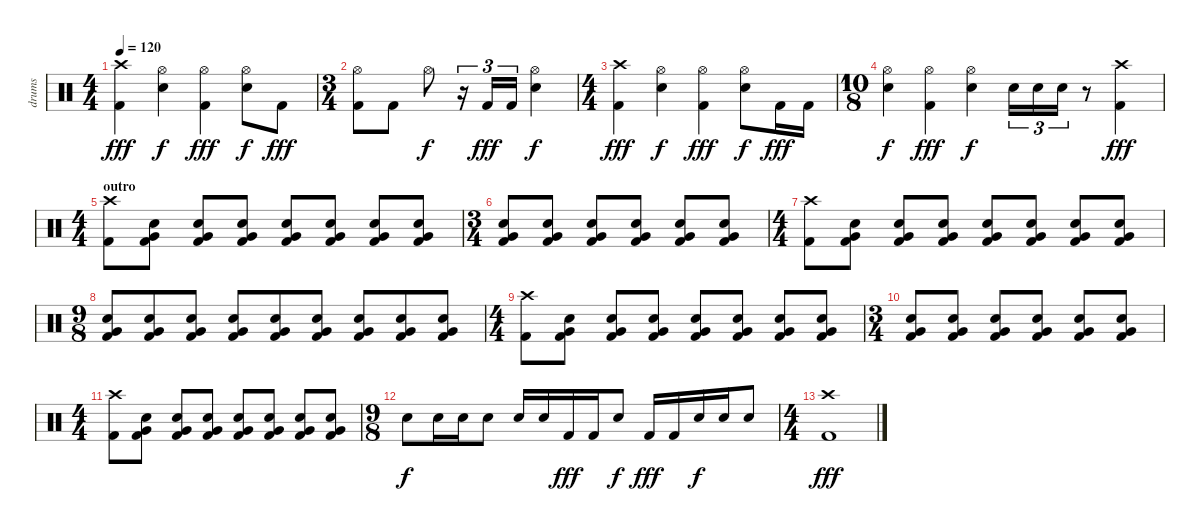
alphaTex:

\track ("drums" "drums") {instrument percussion}
\staff {score}
\articulation defaults
\ts (4 4)
\tempo 120
\clef neutral
\ks c
("Crash high (hit)" "Kick (hit) 2").4{dy fff} ("Hi-Hat (open)" "Snare (hit) 2").4{dy f} ("Hi-Hat (open)" "Kick (hit) 2").4{dy fff} ("Hi-Hat (open)" "Snare (hit) 2").8{dy f} "Kick (hit) 2".8{dy fff} |
\ts (3 4)
("Hi-Hat (open)" "Kick (hit) 2").8 "Kick (hit) 2".8 "Hi-Hat (open)".8{dy f} r.16{tu (3 2)} "Kick (hit) 2".16{tu (3 2) dy fff} "Kick (hit) 2".16{tu (3 2)} ("Hi-Hat (open)" "Snare (hit) 2").4{dy f} |
\ts (4 4)
("Crash high (hit)" "Kick (hit) 2").4{dy fff} ("Hi-Hat (open)" "Snare (hit) 2").4{dy f} ("Hi-Hat (open)" "Kick (hit) 2").4{dy fff} ("Hi-Hat (open)" "Snare (hit) 2").8{dy f} "Kick (hit) 2".16{dy fff} "Kick (hit) 2".16 |
\ts (10 8)
("Hi-Hat (open)" "Snare (hit) 2").4{dy f} ("Hi-Hat (open)" "Kick (hit) 2").4{dy fff} ("Hi-Hat (open)" "Snare (hit) 2").4{dy f} "Snare (hit) 2".16{tu (3 2)} "Snare (hit) 2".16{tu (3 2)} "Snare (hit) 2".16{tu (3 2)} r.8 ("Crash high (hit)" "Kick (hit) 2").4{dy fff} |
\ts (4 4)
\section ("" "outro")
("Crash high (hit)" "Kick (hit) 2").8 ("Snare (hit) 2" "Very Low Tom (hit)" "Kick (hit) 2").8 ("Snare (hit) 2" "Very Low Tom (hit)" "Kick (hit) 2").8 ("Snare (hit) 2" "Very Low Tom (hit)" "Kick (hit) 2").8 ("Snare (hit) 2" "Very Low Tom (hit)" "Kick (hit) 2").8 ("Snare (hit) 2" "Very Low Tom (hit)" "Kick (hit) 2").8 ("Snare (hit) 2" "Very Low Tom (hit)" "Kick (hit) 2").8 ("Snare (hit) 2" "Very Low Tom (hit)" "Kick (hit) 2").8 |
\ts (3 4)
("Snare (hit) 2" "Very Low Tom (hit)" "Kick (hit) 2").8 ("Snare (hit) 2" "Very Low Tom (hit)" "Kick (hit) 2").8 ("Snare (hit) 2" "Very Low Tom (hit)" "Kick (hit) 2").8 ("Snare (hit) 2" "Very Low Tom (hit)" "Kick (hit) 2").8 ("Snare (hit) 2" "Very Low Tom (hit)" "Kick (hit) 2").8 ("Snare (hit) 2" "Very Low Tom (hit)" "Kick (hit) 2").8 |
\ts (4 4)
("Crash high (hit)" "Kick (hit) 2").8 ("Snare (hit) 2" "Very Low Tom (hit)" "Kick (hit) 2").8 ("Snare (hit) 2" "Very Low Tom (hit)" "Kick (hit) 2").8 ("Snare (hit) 2" "Very Low Tom (hit)" "Kick (hit) 2").8 ("Snare (hit) 2" "Very Low Tom (hit)" "Kick (hit) 2").8 ("Snare (hit) 2" "Very Low Tom (hit)" "Kick (hit) 2").8 ("Snare (hit) 2" "Very Low Tom (hit)" "Kick (hit) 2").8 ("Snare (hit) 2" "Very Low Tom (hit)" "Kick (hit) 2").8 |
\ts (9 8)
("Snare (hit) 2" "Very Low Tom (hit)" "Kick (hit) 2").8 ("Snare (hit) 2" "Very Low Tom (hit)" "Kick (hit) 2").8 ("Snare (hit) 2" "Very Low Tom (hit)" "Kick (hit) 2").8 ("Snare (hit) 2" "Very Low Tom (hit)" "Kick (hit) 2").8 ("Snare (hit) 2" "Very Low Tom (hit)" "Kick (hit) 2").8 ("Snare (hit) 2" "Very Low Tom (hit)" "Kick (hit) 2").8 ("Snare (hit) 2" "Very Low Tom (hit)" "Kick (hit) 2").8 ("Snare (hit) 2" "Very Low Tom (hit)" "Kick (hit) 2").8 ("Snare (hit) 2" "Very Low Tom (hit)" "Kick (hit) 2").8 |
\ts (4 4)
("Crash high (hit)" "Kick (hit) 2").8 ("Snare (hit) 2" "Very Low Tom (hit)" "Kick (hit) 2").8 ("Snare (hit) 2" "Very Low Tom (hit)" "Kick (hit) 2").8 ("Snare (hit) 2" "Very Low Tom (hit)" "Kick (hit) 2").8 ("Snare (hit) 2" "Very Low Tom (hit)" "Kick (hit) 2").8 ("Snare (hit) 2" "Very Low Tom (hit)" "Kick (hit) 2").8 ("Snare (hit) 2" "Very Low Tom (hit)" "Kick (hit) 2").8 ("Snare (hit) 2" "Very Low Tom (hit)" "Kick (hit) 2").8 |
\ts (3 4)
("Snare (hit) 2" "Very Low Tom (hit)" "Kick (hit) 2").8 ("Snare (hit) 2" "Very Low Tom (hit)" "Kick (hit) 2").8 ("Snare (hit) 2" "Very Low Tom (hit)" "Kick (hit) 2").8 ("Snare (hit) 2" "Very Low Tom (hit)" "Kick (hit) 2").8 ("Snare (hit) 2" "Very Low Tom (hit)" "Kick (hit) 2").8 ("Snare (hit) 2" "Very Low Tom (hit)" "Kick (hit) 2").8 |
\ts (4 4)
("Crash high (hit)" "Kick (hit) 2").8 ("Snare (hit) 2" "Very Low Tom (hit)" "Kick (hit) 2").8 ("Snare (hit) 2" "Very Low Tom (hit)" "Kick (hit) 2").8 ("Snare (hit) 2" "Very Low Tom (hit)" "Kick (hit) 2").8 ("Snare (hit) 2" "Very Low Tom (hit)" "Kick (hit) 2").8 ("Snare (hit) 2" "Very Low Tom (hit)" "Kick (hit) 2").8 ("Snare (hit) 2" "Very Low Tom (hit)" "Kick (hit) 2").8 ("Snare (hit) 2" "Very Low Tom (hit)" "Kick (hit) 2").8 |
\ts (9 8)
"Snare (hit) 2".8{dy f} "Snare (hit) 2".16 "Snare (hit) 2".16 "Snare (hit) 2".8 "Snare (hit) 2".16 "Snare (hit) 2".16 "Kick (hit) 2".16{dy fff} "Kick (hit) 2".16 "Snare (hit) 2".8{dy f} "Kick (hit) 2".16{dy fff} "Kick (hit) 2".16 "Snare (hit) 2".16{dy f} "Snare (hit) 2".16 "Snare (hit) 2".8 |
\ts (4 4)
("Crash high (hit)" "Kick (hit) 2").1{dy fff}
